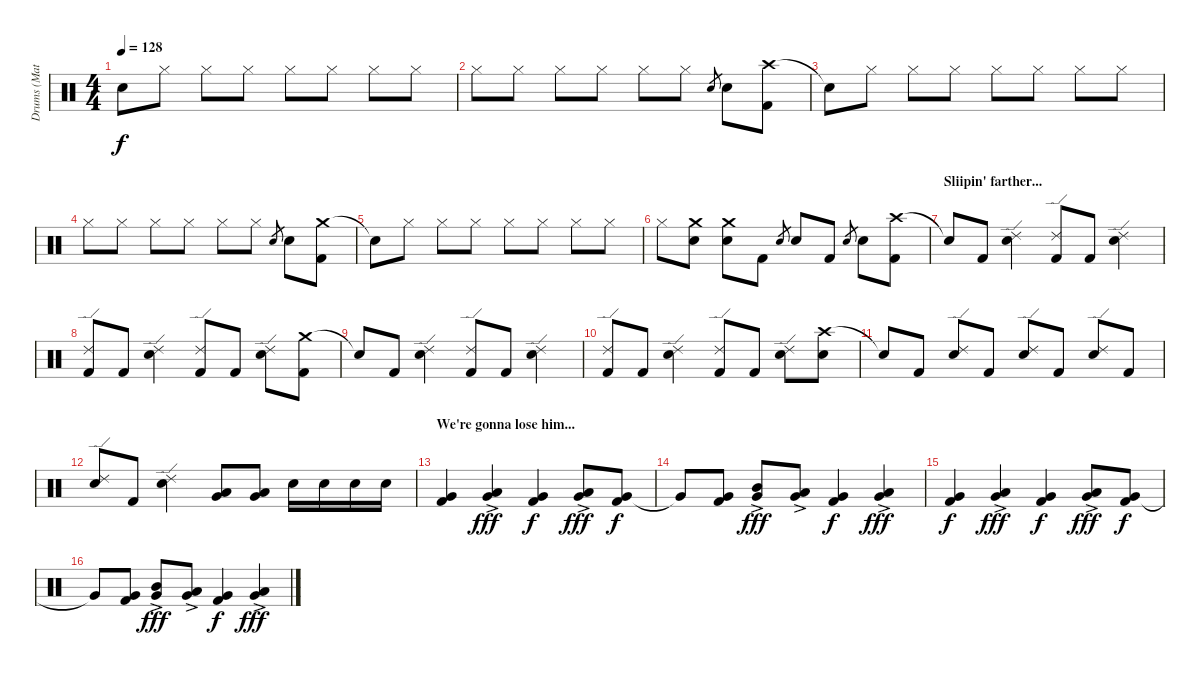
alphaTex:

\track ("Drums (Matt)" "Drums (Mat") {instrument percussion}
\staff {score}
\articulation defaults
\ts (4 4)
\tempo 128
\clef neutral
\ks c "Snare (hit)"{t}.8{dy f} "Hi-Hat (closed)".8 "Hi-Hat (closed)".8 "Hi-Hat (closed)".8 "Hi-Hat (closed)".8 "Hi-Hat (closed)".8 "Hi-Hat (closed)".8 "Hi-Hat (closed)".8
|
"Hi-Hat (closed)".8 "Hi-Hat (closed)".8 "Hi-Hat (closed)".8 "Hi-Hat (closed)".8 "Hi-Hat (closed)".8 "Hi-Hat (closed)".8 "Snare (hit) 2".8{gr} "Snare (hit) 2".8 ("Crash high (hit)" "Kick (hit) 2").8 |
"Snare (hit)"{t}.8 "Hi-Hat (closed)".8 "Hi-Hat (closed)".8 "Hi-Hat (closed)".8 "Hi-Hat (closed)".8 "Hi-Hat (closed)".8 "Hi-Hat (closed)".8 "Hi-Hat (closed)".8 |
"Hi-Hat (closed)".8 "Hi-Hat (closed)".8 "Hi-Hat (closed)".8 "Hi-Hat (closed)".8 "Hi-Hat (closed)".8 "Hi-Hat (closed)".8 "Snare (hit) 2".8{gr} "Snare (hit) 2".8 ("Crash medium (hit)" "Kick (hit) 2").8 |
"Snare (hit)"{t}.8 "Hi-Hat (closed)".8 "Hi-Hat (closed)".8 "Hi-Hat (closed)".8 "Hi-Hat (closed)".8 "Hi-Hat (closed)".8 "Hi-Hat (closed)".8 "Hi-Hat (closed)".8 |
"Hi-Hat (closed)".8 ("Crash medium (hit)" "Snare (hit) 2").8 ("Crash medium (hit)" "Snare (hit) 2").8 "Kick (hit) 2".8 "Snare (hit) 2".8{gr} "Snare (hit) 2".8 "Kick (hit) 2".8 "Snare (hit) 2".8{gr} "Snare (hit) 2".8 ("Crash high (hit)" "Kick (hit) 2").8 |
\section ("" "Sliipin' farther...")
"Snare (hit)"{t}.8 "Kick (hit) 2".8 ("Ride (edge) 2" "Snare (hit) 2").4 ("Ride (edge) 2" "Kick (hit) 2").8 "Kick (hit) 2".8 ("Ride (edge) 2" "Snare (hit) 2").4 |
("Ride (edge) 2" "Kick (hit) 2").8 "Kick (hit) 2".8 ("Ride (edge) 2" "Snare (hit) 2").4 ("Ride (edge) 2" "Kick (hit) 2").8 "Kick (hit) 2".8 ("Ride (edge) 2" "Snare (hit) 2").8 ("Crash medium (hit)" "Kick (hit) 2").8 |
"Snare (hit)"{t}.8 "Kick (hit) 2".8 ("Ride (edge) 2" "Snare (hit) 2").4 ("Ride (edge) 2" "Kick (hit) 2").8 "Kick (hit) 2".8 ("Ride (edge) 2" "Snare (hit) 2").4 |
("Ride (edge) 2" "Kick (hit) 2").8 "Kick (hit) 2".8 ("Ride (edge) 2" "Snare (hit) 2").4 ("Ride (edge) 2" "Kick (hit) 2").8 "Kick (hit) 2".8 ("Ride (edge) 2" "Snare (hit) 2").8 ("Crash high (hit)" "Snare (hit) 2").8 |
"Snare (hit)"{t}.8 "Kick (hit) 2".8 ("Ride (edge) 2" "Snare (hit) 2").8 "Kick (hit) 2".8 ("Ride (edge) 2" "Snare (hit) 2").8 "Kick (hit) 2".8 ("Ride (edge) 2" "Snare (hit) 2").8 "Kick (hit) 2".8 |
("Ride (edge) 2" "Snare (hit) 2").8 "Kick (hit) 2".8 ("Ride (edge) 2" "Snare (hit) 2").4 ("Low Tom (hit)" "Very Low Tom (hit)").8 ("Low Tom (hit)" "Very Low Tom (hit)").8 "Snare (hit) 2".16 "Snare (hit) 2".16 "Snare (hit) 2".16 "Snare (hit) 2".16 |
\section ("" "We're gonna lose him...")
("Very Low Tom (hit)" "Kick (hit) 2").4 ("Low Tom (hit)" "Very Low Tom (hit)"{ac}).4{dy fff} ("Very Low Tom (hit)" "Kick (hit) 2").4{dy f} ("Low Tom (hit)" "Very Low Tom (hit)"{ac}).8{dy fff} ("Very Low Tom (hit)" "Kick (hit) 2").8{dy f} |
"Very Low Tom (hit)"{t}.8 ("Very Low Tom (hit)" "Kick (hit) 2").8 ("Mid Tom (hit)" "Very Low Tom (hit)"{ac}).8{dy fff} ("Low Tom (hit)" "Very Low Tom (hit)"{ac}).8 ("Very Low Tom (hit)" "Kick (hit) 2").4{dy f} ("Low Tom (hit)" "Very Low Tom (hit)"{ac}).4{dy fff} |
("Very Low Tom (hit)" "Kick (hit) 2").4{dy f} ("Low Tom (hit)" "Very Low Tom (hit)"{ac}).4{dy fff} ("Very Low Tom (hit)" "Kick (hit) 2").4{dy f} ("Low Tom (hit)" "Very Low Tom (hit)"{ac}).8{dy fff} ("Very Low Tom (hit)" "Kick (hit) 2").8{dy f} |
"Very Low Tom (hit)"{t}.8 ("Very Low Tom (hit)" "Kick (hit) 2").8 ("Mid Tom (hit)" "Very Low Tom (hit)"{ac}).8{dy fff} ("Low Tom (hit)" "Very Low Tom (hit)"{ac}).8 ("Very Low Tom (hit)" "Kick (hit) 2").4{dy f} ("Low Tom (hit)" "Very Low Tom (hit)"{ac}).4{dy fff}
